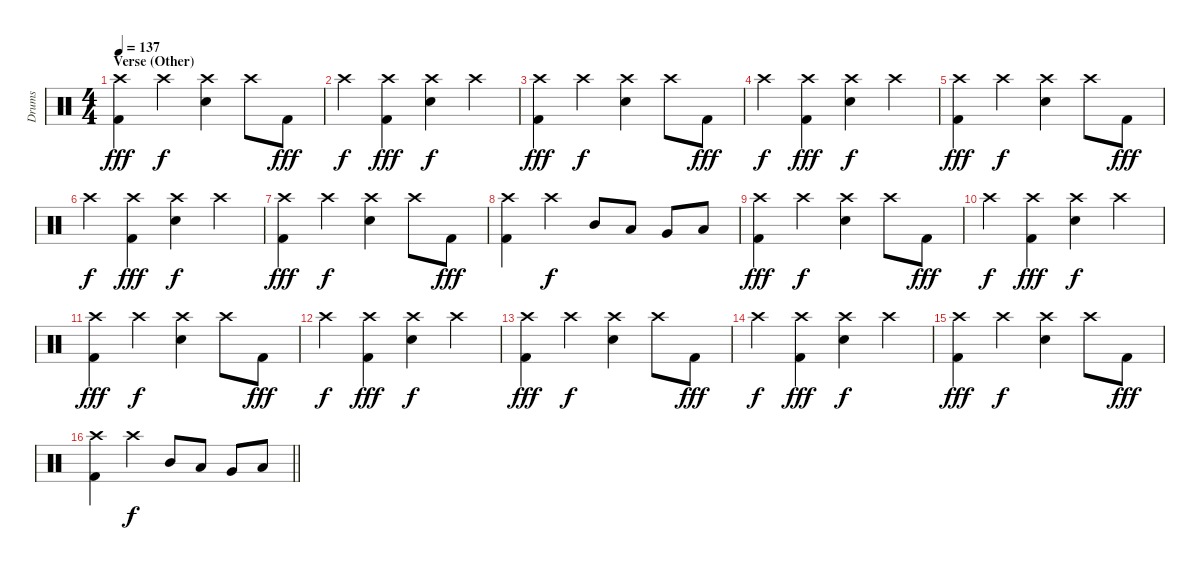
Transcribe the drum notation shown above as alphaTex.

\track ("Drums" "Drums") {instrument percussion}
\staff {score}
\articulation defaults
\ts (4 4)
\section ("" "Verse (Other) ")
\tempo 137
\clef neutral
\ks c
("Crash high (hit)" "Kick (hit) 2").4{dy fff} "Crash high (hit)".4{dy f} ("Crash high (hit)" "Electric Snare (hit)").4 "Crash high (hit)".8 "Kick (hit) 2".8{dy fff} |
"Crash high (hit)".4{dy f} ("Crash high (hit)" "Kick (hit) 2").4{dy fff} ("Crash high (hit)" "Electric Snare (hit)").4{dy f} "Crash high (hit)".4 |
("Crash high (hit)" "Kick (hit) 2").4{dy fff} "Crash high (hit)".4{dy f} ("Crash high (hit)" "Electric Snare (hit)").4 "Crash high (hit)".8 "Kick (hit) 2".8{dy fff} |
"Crash high (hit)".4{dy f} ("Crash high (hit)" "Kick (hit) 2").4{dy fff} ("Crash high (hit)" "Electric Snare (hit)").4{dy f} "Crash high (hit)".4 |
("Crash high (hit)" "Kick (hit) 2").4{dy fff} "Crash high (hit)".4{dy f} ("Crash high (hit)" "Electric Snare (hit)").4 "Crash high (hit)".8 "Kick (hit) 2".8{dy fff} |
"Crash high (hit)".4{dy f} ("Crash high (hit)" "Kick (hit) 2").4{dy fff} ("Crash high (hit)" "Electric Snare (hit)").4{dy f} "Crash high (hit)".4 |
("Crash high (hit)" "Kick (hit) 2").4{dy fff} "Crash high (hit)".4{dy f} ("Crash high (hit)" "Electric Snare (hit)").4 "Crash high (hit)".8 "Kick (hit) 2".8{dy fff} |
("Crash high (hit)" "Kick (hit) 2").4 "Crash high (hit)".4{dy f} "Mid Tom (hit)".8 "Low Tom (hit)".8 "Very Low Tom (hit)".8 "Low Floor Tom (hit)".8 |
("Crash high (hit)" "Kick (hit) 2").4{dy fff} "Crash high (hit)".4{dy f} ("Crash high (hit)" "Electric Snare (hit)").4 "Crash high (hit)".8 "Kick (hit) 2".8{dy fff} |
"Crash high (hit)".4{dy f} ("Crash high (hit)" "Kick (hit) 2").4{dy fff} ("Crash high (hit)" "Electric Snare (hit)").4{dy f} "Crash high (hit)".4 |
("Crash high (hit)" "Kick (hit) 2").4{dy fff} "Crash high (hit)".4{dy f} ("Crash high (hit)" "Electric Snare (hit)").4 "Crash high (hit)".8 "Kick (hit) 2".8{dy fff} |
"Crash high (hit)".4{dy f} ("Crash high (hit)" "Kick (hit) 2").4{dy fff} ("Crash high (hit)" "Electric Snare (hit)").4{dy f} "Crash high (hit)".4 |
("Crash high (hit)" "Kick (hit) 2").4{dy fff} "Crash high (hit)".4{dy f} ("Crash high (hit)" "Electric Snare (hit)").4 "Crash high (hit)".8 "Kick (hit) 2".8{dy fff} |
"Crash high (hit)".4{dy f} ("Crash high (hit)" "Kick (hit) 2").4{dy fff} ("Crash high (hit)" "Electric Snare (hit)").4{dy f} "Crash high (hit)".4 |
("Crash high (hit)" "Kick (hit) 2").4{dy fff} "Crash high (hit)".4{dy f} ("Crash high (hit)" "Electric Snare (hit)").4 "Crash high (hit)".8 "Kick (hit) 2".8{dy fff} |
\barLineRight lightlight
("Crash high (hit)" "Kick (hit) 2").4 "Crash high (hit)".4{dy f} "Mid Tom (hit)".8 "Low Tom (hit)".8 "Very Low Tom (hit)".8 "Low Floor Tom (hit)".8
